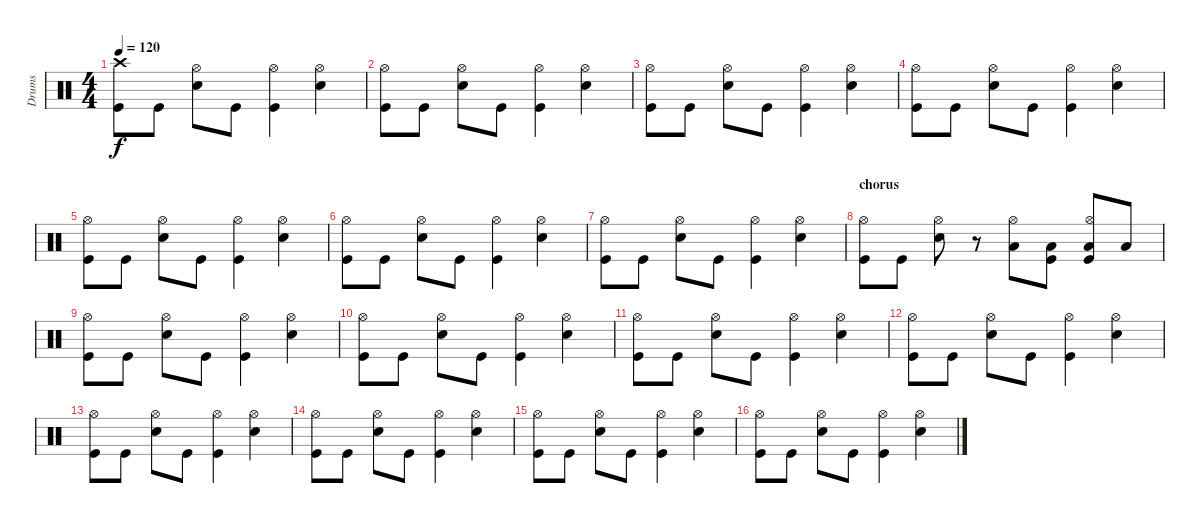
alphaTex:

\track ("Drums" "Drums") {instrument percussion}
\staff {score}
\articulation defaults
\ts (4 4)
\tempo 120
\clef neutral
\ks c
("Crash high (hit)" "Kick (hit)").8{dy f} "Kick (hit)".8 ("Hi-Hat (open)" "Electric Snare (hit)").8 "Kick (hit)".8 ("Hi-Hat (open)" "Kick (hit)").4 ("Hi-Hat (open)" "Electric Snare (hit)").4 |
("Hi-Hat (open)" "Kick (hit)").8 "Kick (hit)".8 ("Hi-Hat (open)" "Electric Snare (hit)").8 "Kick (hit)".8 ("Hi-Hat (open)" "Kick (hit)").4 ("Hi-Hat (open)" "Electric Snare (hit)").4 |
("Hi-Hat (open)" "Kick (hit)").8 "Kick (hit)".8 ("Hi-Hat (open)" "Electric Snare (hit)").8 "Kick (hit)".8 ("Hi-Hat (open)" "Kick (hit)").4 ("Hi-Hat (open)" "Electric Snare (hit)").4 |
("Hi-Hat (open)" "Kick (hit)").8 "Kick (hit)".8 ("Hi-Hat (open)" "Electric Snare (hit)").8 "Kick (hit)".8 ("Hi-Hat (open)" "Kick (hit)").4 ("Hi-Hat (open)" "Electric Snare (hit)").4 |
("Hi-Hat (open)" "Kick (hit)").8 "Kick (hit)".8 ("Hi-Hat (open)" "Electric Snare (hit)").8 "Kick (hit)".8 ("Hi-Hat (open)" "Kick (hit)").4 ("Hi-Hat (open)" "Electric Snare (hit)").4 |
("Hi-Hat (open)" "Kick (hit)").8 "Kick (hit)".8 ("Hi-Hat (open)" "Electric Snare (hit)").8 "Kick (hit)".8 ("Hi-Hat (open)" "Kick (hit)").4 ("Hi-Hat (open)" "Electric Snare (hit)").4 |
("Hi-Hat (open)" "Kick (hit)").8 "Kick (hit)".8 ("Hi-Hat (open)" "Electric Snare (hit)").8 "Kick (hit)".8 ("Hi-Hat (open)" "Kick (hit)").4 ("Hi-Hat (open)" "Electric Snare (hit)").4 |
\section ("" "chorus")
("Hi-Hat (open)" "Kick (hit)").8 "Kick (hit)".8 ("Hi-Hat (open)" "Electric Snare (hit)").8 r.8 ("Hi-Hat (open)" "Low Floor Tom (hit)").8 ("Low Floor Tom (hit)" "Kick (hit)").8 ("Hi-Hat (open)" "Low Floor Tom (hit)" "Kick (hit)").8 "Low Floor Tom (hit)".8 |
("Hi-Hat (open)" "Kick (hit)").8 "Kick (hit)".8 ("Hi-Hat (open)" "Electric Snare (hit)").8 "Kick (hit)".8 ("Hi-Hat (open)" "Kick (hit)").4 ("Hi-Hat (open)" "Electric Snare (hit)").4 |
("Hi-Hat (open)" "Kick (hit)").8 "Kick (hit)".8 ("Hi-Hat (open)" "Electric Snare (hit)").8 "Kick (hit)".8 ("Hi-Hat (open)" "Kick (hit)").4 ("Hi-Hat (open)" "Electric Snare (hit)").4 |
("Hi-Hat (open)" "Kick (hit)").8 "Kick (hit)".8 ("Hi-Hat (open)" "Electric Snare (hit)").8 "Kick (hit)".8 ("Hi-Hat (open)" "Kick (hit)").4 ("Hi-Hat (open)" "Electric Snare (hit)").4 |
("Hi-Hat (open)" "Kick (hit)").8 "Kick (hit)".8 ("Hi-Hat (open)" "Electric Snare (hit)").8 "Kick (hit)".8 ("Hi-Hat (open)" "Kick (hit)").4 ("Hi-Hat (open)" "Electric Snare (hit)").4 |
("Hi-Hat (open)" "Kick (hit)").8 "Kick (hit)".8 ("Hi-Hat (open)" "Electric Snare (hit)").8 "Kick (hit)".8 ("Hi-Hat (open)" "Kick (hit)").4 ("Hi-Hat (open)" "Electric Snare (hit)").4 |
("Hi-Hat (open)" "Kick (hit)").8 "Kick (hit)".8 ("Hi-Hat (open)" "Electric Snare (hit)").8 "Kick (hit)".8 ("Hi-Hat (open)" "Kick (hit)").4 ("Hi-Hat (open)" "Electric Snare (hit)").4 |
("Hi-Hat (open)" "Kick (hit)").8 "Kick (hit)".8 ("Hi-Hat (open)" "Electric Snare (hit)").8 "Kick (hit)".8 ("Hi-Hat (open)" "Kick (hit)").4 ("Hi-Hat (open)" "Electric Snare (hit)").4 |
("Hi-Hat (open)" "Kick (hit)").8 "Kick (hit)".8 ("Hi-Hat (open)" "Electric Snare (hit)").8 "Kick (hit)".8 ("Hi-Hat (open)" "Kick (hit)").4 ("Hi-Hat (open)" "Electric Snare (hit)").4
